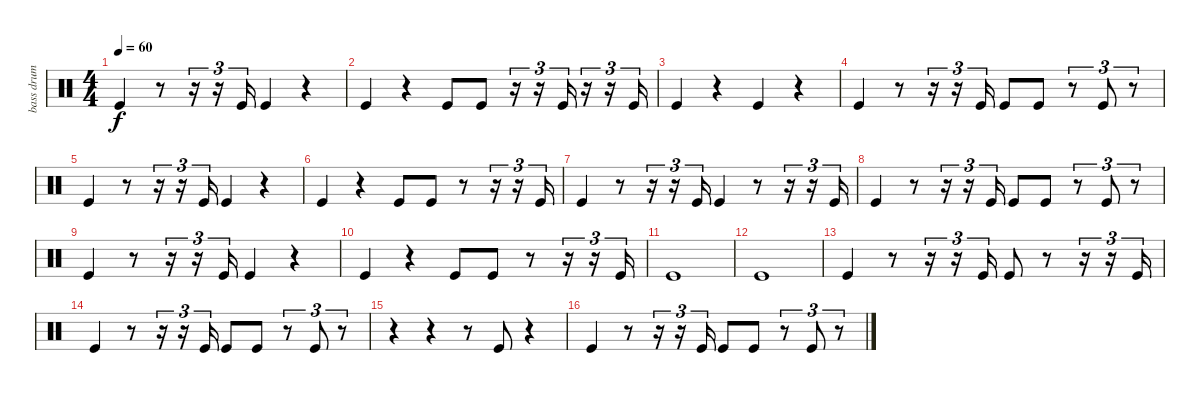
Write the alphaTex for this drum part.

\track ("bass drum" "bass drum") {instrument percussion}
\staff {score}
\articulation defaults
\ts (4 4)
\tempo 60
\clef neutral
\ks c "Kick (hit)".4{dy f}
r.8 r.16{tu (3 2)} r.16{tu (3 2)} "Kick (hit)".16{tu (3 2)} "Kick (hit)".4 r.4 |
"Kick (hit)".4 r.4 "Kick (hit)".8 "Kick (hit)".8 r.16{tu (3 2)} r.16{tu (3 2)} "Kick (hit)".16{tu (3 2)} r.16{tu (3 2)} r.16{tu (3 2)} "Kick (hit)".16{tu (3 2)} |
"Kick (hit)".4 r.4 "Kick (hit)".4 r.4 |
"Kick (hit)".4 r.8 r.16{tu (3 2)} r.16{tu (3 2)} "Kick (hit)".16{tu (3 2)} "Kick (hit)".8 "Kick (hit)".8 r.8{tu (3 2)} "Kick (hit)".8{tu (3 2)} r.8{tu (3 2)} |
"Kick (hit)".4 r.8 r.16{tu (3 2)} r.16{tu (3 2)} "Kick (hit)".16{tu (3 2)} "Kick (hit)".4 r.4 |
"Kick (hit)".4 r.4 "Kick (hit)".8 "Kick (hit)".8 r.8 r.16{tu (3 2)} r.16{tu (3 2)} "Kick (hit)".16{tu (3 2)} |
"Kick (hit)".4 r.8 r.16{tu (3 2)} r.16{tu (3 2)} "Kick (hit)".16{tu (3 2)} "Kick (hit)".4 r.8 r.16{tu (3 2)} r.16{tu (3 2)} "Kick (hit)".16{tu (3 2)} |
"Kick (hit)".4 r.8 r.16{tu (3 2)} r.16{tu (3 2)} "Kick (hit)".16{tu (3 2)} "Kick (hit)".8 "Kick (hit)".8 r.8{tu (3 2)} "Kick (hit)".8{tu (3 2)} r.8{tu (3 2)} |
"Kick (hit)".4 r.8 r.16{tu (3 2)} r.16{tu (3 2)} "Kick (hit)".16{tu (3 2)} "Kick (hit)".4 r.4 |
"Kick (hit)".4 r.4 "Kick (hit)".8 "Kick (hit)".8 r.8 r.16{tu (3 2)} r.16{tu (3 2)} "Kick (hit)".16{tu (3 2)} |
"Kick (hit)".1 |
"Kick (hit)".1 |
"Kick (hit)".4 r.8 r.16{tu (3 2)} r.16{tu (3 2)} "Kick (hit)".16{tu (3 2)} "Kick (hit)".8 r.8 r.16{tu (3 2)} r.16{tu (3 2)} "Kick (hit)".16{tu (3 2)} |
"Kick (hit)".4 r.8 r.16{tu (3 2)} r.16{tu (3 2)} "Kick (hit)".16{tu (3 2)} "Kick (hit)".8 "Kick (hit)".8 r.8{tu (3 2)} "Kick (hit)".8{tu (3 2)} r.8{tu (3 2)} |
r.4 r.4 r.8 "Kick (hit)".8 r.4 |
"Kick (hit)".4 r.8 r.16{tu (3 2)} r.16{tu (3 2)} "Kick (hit)".16{tu (3 2)} "Kick (hit)".8 "Kick (hit)".8 r.8{tu (3 2)} "Kick (hit)".8{tu (3 2)} r.8{tu (3 2)}
